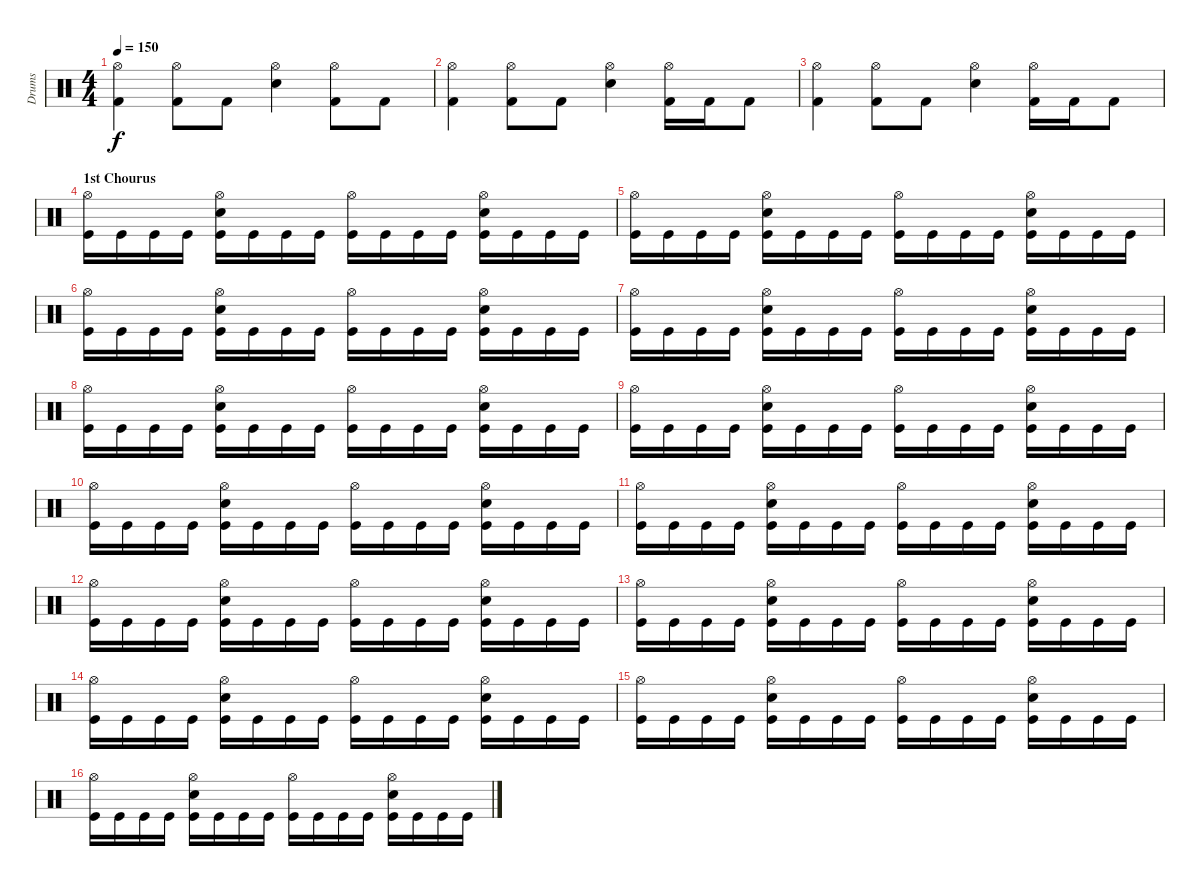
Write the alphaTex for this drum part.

\track ("Drums" "Drums") {instrument percussion}
\staff {score}
\articulation defaults
\ts (4 4)
\tempo 150
\clef neutral
\ks c
("Hi-Hat (open)" "Kick (hit) 2").4{dy f} ("Hi-Hat (open)" "Kick (hit) 2").8 "Kick (hit) 2".8 ("Hi-Hat (open)" "Snare (hit) 2").4 ("Hi-Hat (open)" "Kick (hit) 2").8 "Kick (hit) 2".8 |
("Hi-Hat (open)" "Kick (hit) 2").4 ("Hi-Hat (open)" "Kick (hit) 2").8 "Kick (hit) 2".8 ("Hi-Hat (open)" "Snare (hit) 2").4 ("Hi-Hat (open)" "Kick (hit) 2").16 "Kick (hit) 2".16 "Kick (hit) 2".8 |
("Hi-Hat (open)" "Kick (hit) 2").4 ("Hi-Hat (open)" "Kick (hit) 2").8 "Kick (hit) 2".8 ("Hi-Hat (open)" "Snare (hit) 2").4 ("Hi-Hat (open)" "Kick (hit) 2").16 "Kick (hit) 2".16 "Kick (hit) 2".8 |
\section ("" "1st Chourus")
("Hi-Hat (open)" "Kick (hit)").16 "Kick (hit)".16 "Kick (hit)".16 "Kick (hit)".16 ("Hi-Hat (open)" "Snare (hit) 2" "Kick (hit)").16 "Kick (hit)".16 "Kick (hit)".16 "Kick (hit)".16 ("Hi-Hat (open)" "Kick (hit)").16 "Kick (hit)".16 "Kick (hit)".16 "Kick (hit)".16 ("Hi-Hat (open)" "Snare (hit) 2" "Kick (hit)").16 "Kick (hit)".16 "Kick (hit)".16 "Kick (hit)".16 |
("Hi-Hat (open)" "Kick (hit)").16 "Kick (hit)".16 "Kick (hit)".16 "Kick (hit)".16 ("Hi-Hat (open)" "Snare (hit) 2" "Kick (hit)").16 "Kick (hit)".16 "Kick (hit)".16 "Kick (hit)".16 ("Hi-Hat (open)" "Kick (hit)").16 "Kick (hit)".16 "Kick (hit)".16 "Kick (hit)".16 ("Hi-Hat (open)" "Snare (hit) 2" "Kick (hit)").16 "Kick (hit)".16 "Kick (hit)".16 "Kick (hit)".16 |
("Hi-Hat (open)" "Kick (hit)").16 "Kick (hit)".16 "Kick (hit)".16 "Kick (hit)".16 ("Hi-Hat (open)" "Snare (hit) 2" "Kick (hit)").16 "Kick (hit)".16 "Kick (hit)".16 "Kick (hit)".16 ("Hi-Hat (open)" "Kick (hit)").16 "Kick (hit)".16 "Kick (hit)".16 "Kick (hit)".16 ("Hi-Hat (open)" "Snare (hit) 2" "Kick (hit)").16 "Kick (hit)".16 "Kick (hit)".16 "Kick (hit)".16 |
("Hi-Hat (open)" "Kick (hit)").16 "Kick (hit)".16 "Kick (hit)".16 "Kick (hit)".16 ("Hi-Hat (open)" "Snare (hit) 2" "Kick (hit)").16 "Kick (hit)".16 "Kick (hit)".16 "Kick (hit)".16 ("Hi-Hat (open)" "Kick (hit)").16 "Kick (hit)".16 "Kick (hit)".16 "Kick (hit)".16 ("Hi-Hat (open)" "Snare (hit) 2" "Kick (hit)").16 "Kick (hit)".16 "Kick (hit)".16 "Kick (hit)".16 |
("Hi-Hat (open)" "Kick (hit)").16 "Kick (hit)".16 "Kick (hit)".16 "Kick (hit)".16 ("Hi-Hat (open)" "Snare (hit) 2" "Kick (hit)").16 "Kick (hit)".16 "Kick (hit)".16 "Kick (hit)".16 ("Hi-Hat (open)" "Kick (hit)").16 "Kick (hit)".16 "Kick (hit)".16 "Kick (hit)".16 ("Hi-Hat (open)" "Snare (hit) 2" "Kick (hit)").16 "Kick (hit)".16 "Kick (hit)".16 "Kick (hit)".16 |
("Hi-Hat (open)" "Kick (hit)").16 "Kick (hit)".16 "Kick (hit)".16 "Kick (hit)".16 ("Hi-Hat (open)" "Snare (hit) 2" "Kick (hit)").16 "Kick (hit)".16 "Kick (hit)".16 "Kick (hit)".16 ("Hi-Hat (open)" "Kick (hit)").16 "Kick (hit)".16 "Kick (hit)".16 "Kick (hit)".16 ("Hi-Hat (open)" "Snare (hit) 2" "Kick (hit)").16 "Kick (hit)".16 "Kick (hit)".16 "Kick (hit)".16 |
("Hi-Hat (open)" "Kick (hit)").16 "Kick (hit)".16 "Kick (hit)".16 "Kick (hit)".16 ("Hi-Hat (open)" "Snare (hit) 2" "Kick (hit)").16 "Kick (hit)".16 "Kick (hit)".16 "Kick (hit)".16 ("Hi-Hat (open)" "Kick (hit)").16 "Kick (hit)".16 "Kick (hit)".16 "Kick (hit)".16 ("Hi-Hat (open)" "Snare (hit) 2" "Kick (hit)").16 "Kick (hit)".16 "Kick (hit)".16 "Kick (hit)".16 |
("Hi-Hat (open)" "Kick (hit)").16 "Kick (hit)".16 "Kick (hit)".16 "Kick (hit)".16 ("Hi-Hat (open)" "Snare (hit) 2" "Kick (hit)").16 "Kick (hit)".16 "Kick (hit)".16 "Kick (hit)".16 ("Hi-Hat (open)" "Kick (hit)").16 "Kick (hit)".16 "Kick (hit)".16 "Kick (hit)".16 ("Hi-Hat (open)" "Snare (hit) 2" "Kick (hit)").16 "Kick (hit)".16 "Kick (hit)".16 "Kick (hit)".16 |
("Hi-Hat (open)" "Kick (hit)").16 "Kick (hit)".16 "Kick (hit)".16 "Kick (hit)".16 ("Hi-Hat (open)" "Snare (hit) 2" "Kick (hit)").16 "Kick (hit)".16 "Kick (hit)".16 "Kick (hit)".16 ("Hi-Hat (open)" "Kick (hit)").16 "Kick (hit)".16 "Kick (hit)".16 "Kick (hit)".16 ("Hi-Hat (open)" "Snare (hit) 2" "Kick (hit)").16 "Kick (hit)".16 "Kick (hit)".16 "Kick (hit)".16 |
("Hi-Hat (open)" "Kick (hit)").16 "Kick (hit)".16 "Kick (hit)".16 "Kick (hit)".16 ("Hi-Hat (open)" "Snare (hit) 2" "Kick (hit)").16 "Kick (hit)".16 "Kick (hit)".16 "Kick (hit)".16 ("Hi-Hat (open)" "Kick (hit)").16 "Kick (hit)".16 "Kick (hit)".16 "Kick (hit)".16 ("Hi-Hat (open)" "Snare (hit) 2" "Kick (hit)").16 "Kick (hit)".16 "Kick (hit)".16 "Kick (hit)".16 |
("Hi-Hat (open)" "Kick (hit)").16 "Kick (hit)".16 "Kick (hit)".16 "Kick (hit)".16 ("Hi-Hat (open)" "Snare (hit) 2" "Kick (hit)").16 "Kick (hit)".16 "Kick (hit)".16 "Kick (hit)".16 ("Hi-Hat (open)" "Kick (hit)").16 "Kick (hit)".16 "Kick (hit)".16 "Kick (hit)".16 ("Hi-Hat (open)" "Snare (hit) 2" "Kick (hit)").16 "Kick (hit)".16 "Kick (hit)".16 "Kick (hit)".16 |
("Hi-Hat (open)" "Kick (hit)").16 "Kick (hit)".16 "Kick (hit)".16 "Kick (hit)".16 ("Hi-Hat (open)" "Snare (hit) 2" "Kick (hit)").16 "Kick (hit)".16 "Kick (hit)".16 "Kick (hit)".16 ("Hi-Hat (open)" "Kick (hit)").16 "Kick (hit)".16 "Kick (hit)".16 "Kick (hit)".16 ("Hi-Hat (open)" "Snare (hit) 2" "Kick (hit)").16 "Kick (hit)".16 "Kick (hit)".16 "Kick (hit)".16 |
("Hi-Hat (open)" "Kick (hit)").16 "Kick (hit)".16 "Kick (hit)".16 "Kick (hit)".16 ("Hi-Hat (open)" "Snare (hit) 2" "Kick (hit)").16 "Kick (hit)".16 "Kick (hit)".16 "Kick (hit)".16 ("Hi-Hat (open)" "Kick (hit)").16 "Kick (hit)".16 "Kick (hit)".16 "Kick (hit)".16 ("Hi-Hat (open)" "Snare (hit) 2" "Kick (hit)").16 "Kick (hit)".16 "Kick (hit)".16 "Kick (hit)".16
